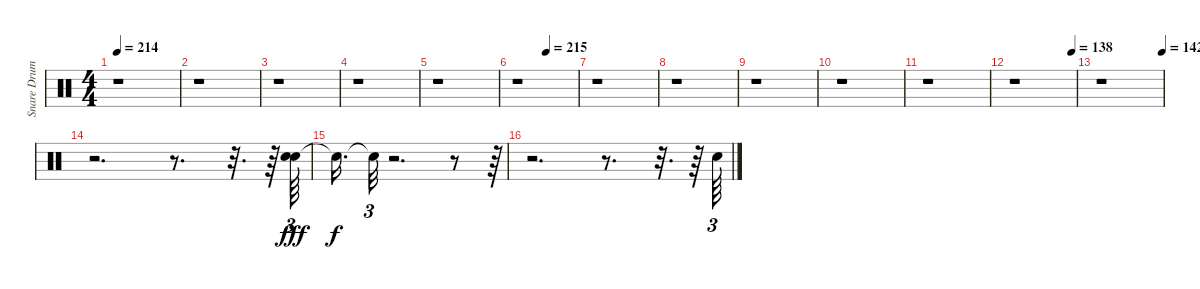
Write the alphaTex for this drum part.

\track ("Snare Drums" "Snare Drum") {instrument percussion}
\staff {score}
\articulation defaults
\ts (4 4)
\tempo 214
\clef neutral
\ks c
r.1{dy mp} |
r.1 |
r.1 |
r.1 |
r.1 |
\tempo (215 0.4895833333333333)
r.1 |
r.1 |
r.1 |
r.1 |
r.1 |
r.1 |
\tempo (138 0.9375)
r.1 |
\tempo (142 1)
r.1 |
r.2{d} r.8{d} r.32{d} r.64 ("Electric Snare (hit)" "Electric Snare (hit)").64{tu (3 2) dy fff volume 16} |
"Snare (hit)"{t}.16{d dy f} "Snare (hit)"{t}.32{tu (3 2)} r.2{d} r.8 r.64{tu (3 2)} |
r.2{d} r.8{d} r.32{d} r.64 "Electric Snare (hit)".64{tu (3 2) volume 16}
